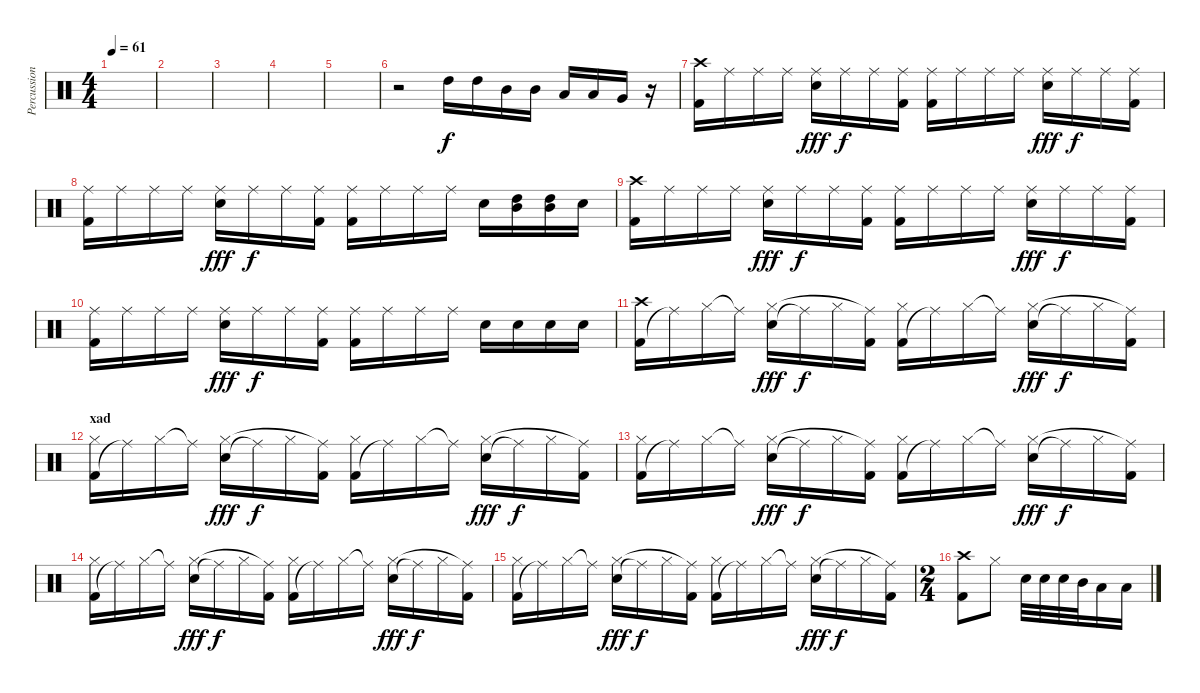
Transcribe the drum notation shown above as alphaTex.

\track ("Percussions" "Percussion") {instrument percussion}
\staff {score}
\articulation defaults
\ts (4 4)
\tempo 61
\clef neutral
\ks c
|
|
|
|
|
r.2 "High Tom (hit)".16 "High Tom (hit)".16 "Mid Tom (hit)".16 "Mid Tom (hit)".16 "Low Tom (hit)".16 "Low Tom (hit)".16 "Very Low Tom (hit)".16 r.16 |
("Kick (hit) 2" "Crash high (hit)").16 "Ride (middle)".16 "Ride (middle)".16 "Ride (middle)".16 ("Snare (hit) 2" "Ride (middle)").16{dy fff} "Ride (middle)".16{dy f} "Ride (middle)".16 ("Kick (hit) 2" "Ride (middle)").16 ("Kick (hit) 2" "Ride (middle)").16 "Ride (middle)".16 "Ride (middle)".16 "Ride (middle)".16 ("Electric Snare (hit)" "Ride (middle)").16{dy fff} "Ride (middle)".16{dy f} "Ride (middle)".16 ("Kick (hit) 2" "Ride (middle)").16 |
("Kick (hit) 2" "Ride (middle)").16 "Ride (middle)".16 "Ride (middle)".16 "Ride (middle)".16 ("Electric Snare (hit)" "Ride (middle)").16{dy fff} "Ride (middle)".16{dy f} "Ride (middle)".16 ("Kick (hit) 2" "Ride (middle)").16 ("Kick (hit) 2" "Ride (middle)").16 "Ride (middle)".16 "Ride (middle)".16 "Ride (middle)".16 "Electric Snare (hit)".16 ("High Tom (hit)" "Mid Tom (hit)").16 ("High Tom (hit)" "Mid Tom (hit)").16 "Electric Snare (hit)".16 |
("Kick (hit) 2" "Crash high (hit)").16 "Ride (middle)".16 "Ride (middle)".16 "Ride (middle)".16 ("Electric Snare (hit)" "Ride (middle)").16{dy fff} "Ride (middle)".16{dy f} "Ride (middle)".16 ("Kick (hit) 2" "Ride (middle)").16 ("Kick (hit) 2" "Ride (middle)").16 "Ride (middle)".16 "Ride (middle)".16 "Ride (middle)".16 ("Electric Snare (hit)" "Ride (middle)").16{dy fff} "Ride (middle)".16{dy f} "Ride (middle)".16 ("Kick (hit) 2" "Ride (middle)").16 |
("Kick (hit) 2" "Ride (middle)").16 "Ride (middle)".16 "Ride (middle)".16 "Ride (middle)".16 ("Electric Snare (hit)" "Ride (middle)").16{dy fff} "Ride (middle)".16{dy f} "Ride (middle)".16 ("Kick (hit) 2" "Ride (middle)").16 ("Kick (hit) 2" "Ride (middle)").16 "Ride (middle)".16 "Ride (middle)".16 "Ride (middle)".16 "Electric Snare (hit)".16 "Electric Snare (hit)".16 "Electric Snare (hit)".16 "Electric Snare (hit)".16 |
("Kick (hit) 2" "Crash high (hit)").16 "Ride (middle)"{t}.16 "Hi-Hat (closed)".16 "Ride (middle)"{t}.16 ("Electric Snare (hit)" "Hi-Hat (closed)").16{dy fff} "Ride (middle)"{t}.16{dy f} "Hi-Hat (closed)".16 ("Kick (hit) 2" "Ride (middle)"{t}).16 ("Kick (hit) 2" "Hi-Hat (closed)").16 "Ride (middle)"{t}.16 "Hi-Hat (closed)".16 "Ride (middle)"{t}.16 ("Electric Snare (hit)" "Hi-Hat (closed)").16{dy fff} "Ride (middle)"{t}.16{dy f} "Hi-Hat (closed)".16 ("Kick (hit) 2" "Ride (middle)"{t}).16 |
\section ("" "xad")
("Kick (hit) 2" "Hi-Hat (closed)").16 "Ride (middle)"{t}.16 "Hi-Hat (closed)".16 "Ride (middle)"{t}.16 ("Electric Snare (hit)" "Hi-Hat (closed)").16{dy fff} "Ride (middle)"{t}.16{dy f} "Hi-Hat (closed)".16 ("Kick (hit) 2" "Ride (middle)"{t}).16 ("Kick (hit) 2" "Hi-Hat (closed)").16 "Ride (middle)"{t}.16 "Hi-Hat (closed)".16 "Ride (middle)"{t}.16 ("Electric Snare (hit)" "Hi-Hat (closed)").16{dy fff} "Ride (middle)"{t}.16{dy f} "Hi-Hat (closed)".16 ("Kick (hit) 2" "Ride (middle)"{t}).16 |
("Kick (hit) 2" "Hi-Hat (closed)").16 "Ride (middle)"{t}.16 "Hi-Hat (closed)".16 "Ride (middle)"{t}.16 ("Electric Snare (hit)" "Hi-Hat (closed)").16{dy fff} "Ride (middle)"{t}.16{dy f} "Hi-Hat (closed)".16 ("Kick (hit) 2" "Ride (middle)"{t}).16 ("Kick (hit) 2" "Hi-Hat (closed)").16 "Ride (middle)"{t}.16 "Hi-Hat (closed)".16 "Ride (middle)"{t}.16 ("Electric Snare (hit)" "Hi-Hat (closed)").16{dy fff} "Ride (middle)"{t}.16{dy f} "Hi-Hat (closed)".16 ("Kick (hit) 2" "Ride (middle)"{t}).16 |
("Kick (hit) 2" "Hi-Hat (closed)").16 "Ride (middle)"{t}.16 "Hi-Hat (closed)".16 "Ride (middle)"{t}.16 ("Electric Snare (hit)" "Hi-Hat (closed)").16{dy fff} "Ride (middle)"{t}.16{dy f} "Hi-Hat (closed)".16 ("Kick (hit) 2" "Ride (middle)"{t}).16 ("Kick (hit) 2" "Hi-Hat (closed)").16 "Ride (middle)"{t}.16 "Hi-Hat (closed)".16 "Ride (middle)"{t}.16 ("Electric Snare (hit)" "Hi-Hat (closed)").16{dy fff} "Ride (middle)"{t}.16{dy f} "Hi-Hat (closed)".16 ("Kick (hit) 2" "Ride (middle)"{t}).16 |
("Kick (hit) 2" "Hi-Hat (closed)").16 "Ride (middle)"{t}.16 "Hi-Hat (closed)".16 "Ride (middle)"{t}.16 ("Electric Snare (hit)" "Hi-Hat (closed)").16{dy fff} "Ride (middle)"{t}.16{dy f} "Hi-Hat (closed)".16 ("Kick (hit) 2" "Ride (middle)"{t}).16 ("Kick (hit) 2" "Hi-Hat (closed)").16 "Ride (middle)"{t}.16 "Hi-Hat (closed)".16 "Ride (middle)"{t}.16 ("Electric Snare (hit)" "Hi-Hat (closed)").16{dy fff} "Ride (middle)"{t}.16{dy f} "Hi-Hat (closed)".16 ("Kick (hit) 2" "Ride (middle)"{t}).16 |
\ts (2 4)
("Kick (hit) 2" "Crash high (hit)").8 "Hi-Hat (closed)".8 "Snare (hit) 2".32 "Snare (hit) 2".32 "Snare (hit) 2".32 "Mid Tom (hit)".32 "Low Tom (hit)".16 "Low Tom (hit)".16
